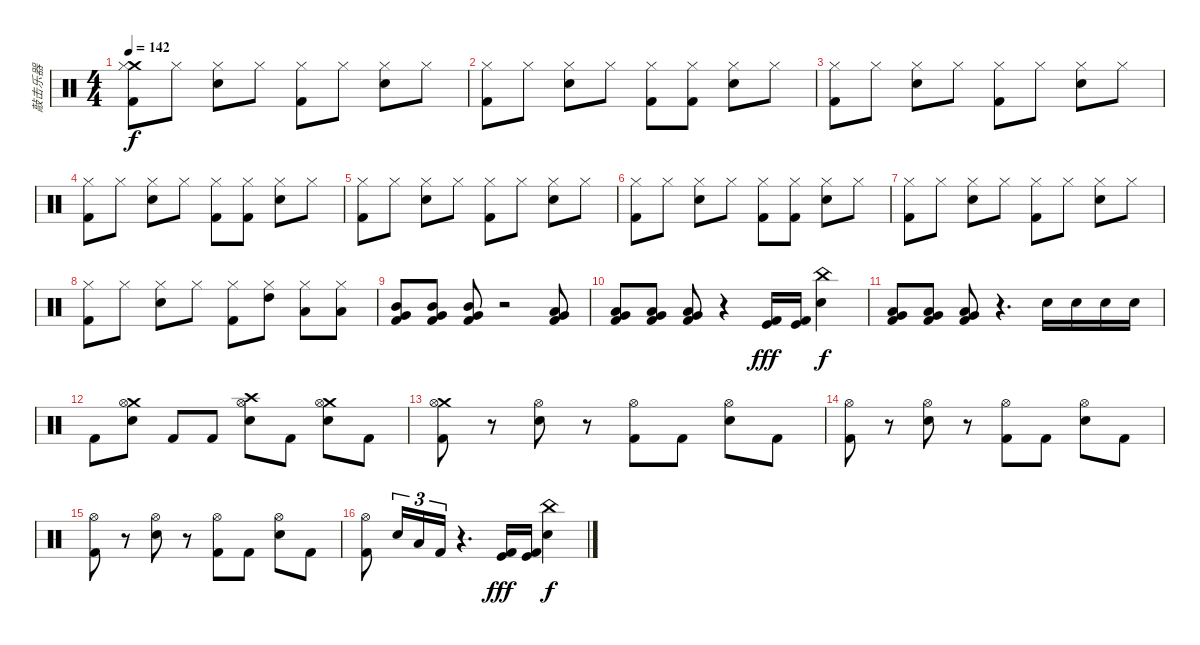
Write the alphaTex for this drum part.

\track ("敲击乐器" "敲击乐器") {instrument percussion}
\staff {score}
\articulation defaults
\ts (4 4)
\tempo 142
\clef neutral
\ks c
("Crash medium (hit)" "Hi-Hat (closed)" "Kick (hit) 2").8{dy f} "Hi-Hat (closed)".8 ("Snare (hit) 2" "Hi-Hat (closed)").8 "Hi-Hat (closed)".8 ("Hi-Hat (closed)" "Kick (hit) 2").8 "Hi-Hat (closed)".8 ("Snare (hit) 2" "Hi-Hat (closed)").8 "Hi-Hat (closed)".8 |
("Hi-Hat (closed)" "Kick (hit) 2").8 "Hi-Hat (closed)".8 ("Snare (hit) 2" "Hi-Hat (closed)").8 "Hi-Hat (closed)".8 ("Hi-Hat (closed)" "Kick (hit) 2").8 ("Hi-Hat (closed)" "Kick (hit) 2").8 ("Snare (hit) 2" "Hi-Hat (closed)").8 "Hi-Hat (closed)".8 |
("Hi-Hat (closed)" "Kick (hit) 2").8 "Hi-Hat (closed)".8 ("Snare (hit) 2" "Hi-Hat (closed)").8 "Hi-Hat (closed)".8 ("Hi-Hat (closed)" "Kick (hit) 2").8 "Hi-Hat (closed)".8 ("Snare (hit) 2" "Hi-Hat (closed)").8 "Hi-Hat (closed)".8 |
("Hi-Hat (closed)" "Kick (hit) 2").8 "Hi-Hat (closed)".8 ("Snare (hit) 2" "Hi-Hat (closed)").8 "Hi-Hat (closed)".8 ("Hi-Hat (closed)" "Kick (hit) 2").8 ("Hi-Hat (closed)" "Kick (hit) 2").8 ("Snare (hit) 2" "Hi-Hat (closed)").8 "Hi-Hat (closed)".8 |
("Hi-Hat (closed)" "Kick (hit) 2").8 "Hi-Hat (closed)".8 ("Snare (hit) 2" "Hi-Hat (closed)").8 "Hi-Hat (closed)".8 ("Hi-Hat (closed)" "Kick (hit) 2").8 "Hi-Hat (closed)".8 ("Snare (hit) 2" "Hi-Hat (closed)").8 "Hi-Hat (closed)".8 |
("Hi-Hat (closed)" "Kick (hit) 2").8 "Hi-Hat (closed)".8 ("Snare (hit) 2" "Hi-Hat (closed)").8 "Hi-Hat (closed)".8 ("Hi-Hat (closed)" "Kick (hit) 2").8 ("Hi-Hat (closed)" "Kick (hit) 2").8 ("Snare (hit) 2" "Hi-Hat (closed)").8 "Hi-Hat (closed)".8 |
("Hi-Hat (closed)" "Kick (hit) 2").8 "Hi-Hat (closed)".8 ("Snare (hit) 2" "Hi-Hat (closed)").8 "Hi-Hat (closed)".8 ("Hi-Hat (closed)" "Kick (hit) 2").8 "Hi-Hat (closed)".8 ("Snare (hit) 2" "Hi-Hat (closed)").8 "Hi-Hat (closed)".8 |
("Hi-Hat (closed)" "Kick (hit) 2").8 "Hi-Hat (closed)".8 ("Snare (hit) 2" "Hi-Hat (closed)").8 "Hi-Hat (closed)".8 ("Hi-Hat (closed)" "Kick (hit) 2").8 ("High Tom (hit)" "Hi-Hat (closed)").8 ("Low Tom (hit)" "Hi-Hat (closed)").8 ("Low Floor Tom (hit)" "Hi-Hat (closed)").8 |
("Mid Tom (hit)" "Very Low Tom (hit)" "Kick (hit) 2").8 ("Mid Tom (hit)" "Very Low Tom (hit)" "Kick (hit) 2").8 ("Mid Tom (hit)" "Very Low Tom (hit)" "Kick (hit) 2").8 r.2 ("Low Tom (hit)" "Very Low Tom (hit)" "Kick (hit) 2").8 |
("Low Tom (hit)" "Very Low Tom (hit)" "Kick (hit) 2").8 ("Low Tom (hit)" "Very Low Tom (hit)" "Kick (hit) 2").8 ("Low Tom (hit)" "Very Low Tom (hit)" "Kick (hit) 2").8 r.4 ("Kick (hit)" "Kick (hit) 2").16{dy fff} ("Kick (hit)" "Kick (hit) 2").16 ("Snare (hit) 2" "China (hit)").4{dy f} |
("Very Low Tom (hit)" "Low Floor Tom (hit)" "Kick (hit) 2").8 ("Very Low Tom (hit)" "Low Floor Tom (hit)" "Kick (hit) 2").8 ("Very Low Tom (hit)" "Low Floor Tom (hit)" "Kick (hit) 2").8 r.4{d} "Snare (hit) 2".16 "Snare (hit) 2".16 "Snare (hit) 2".16 "Snare (hit) 2".16 |
"Kick (hit) 2".8 ("Snare (hit) 2" "Crash medium (hit)" "Hi-Hat (open)").8 "Kick (hit) 2".8 "Kick (hit) 2".8 ("Snare (hit) 2" "Crash high (hit)" "Hi-Hat (open)").8 "Kick (hit) 2".8 ("Snare (hit) 2" "Crash medium (hit)" "Hi-Hat (open)").8 "Kick (hit) 2".8 |
("Crash medium (hit)" "Hi-Hat (open)" "Kick (hit) 2").8 r.8 ("Snare (hit) 2" "Hi-Hat (open)").8 r.8 ("Hi-Hat (open)" "Kick (hit) 2").8 "Kick (hit) 2".8 ("Snare (hit) 2" "Hi-Hat (open)").8 "Kick (hit) 2".8 |
("Hi-Hat (open)" "Kick (hit) 2").8 r.8 ("Snare (hit) 2" "Hi-Hat (open)").8 r.8 ("Hi-Hat (open)" "Kick (hit) 2").8 "Kick (hit) 2".8 ("Snare (hit) 2" "Hi-Hat (open)").8 "Kick (hit) 2".8 |
("Hi-Hat (open)" "Kick (hit) 2").8 r.8 ("Snare (hit) 2" "Hi-Hat (open)").8 r.8 ("Hi-Hat (open)" "Kick (hit) 2").8 "Kick (hit) 2".8 ("Snare (hit) 2" "Hi-Hat (open)").8 "Kick (hit) 2".8 |
("Hi-Hat (open)" "Kick (hit) 2").8 "Snare (hit) 2".16{tu (3 2)} "Low Floor Tom (hit)".16{tu (3 2)} "Kick (hit) 2".16{tu (3 2)} r.4{d} ("Kick (hit)" "Kick (hit) 2").16{dy fff} ("Kick (hit)" "Kick (hit) 2").16 ("Snare (hit) 2" "China (hit)").4{dy f}
